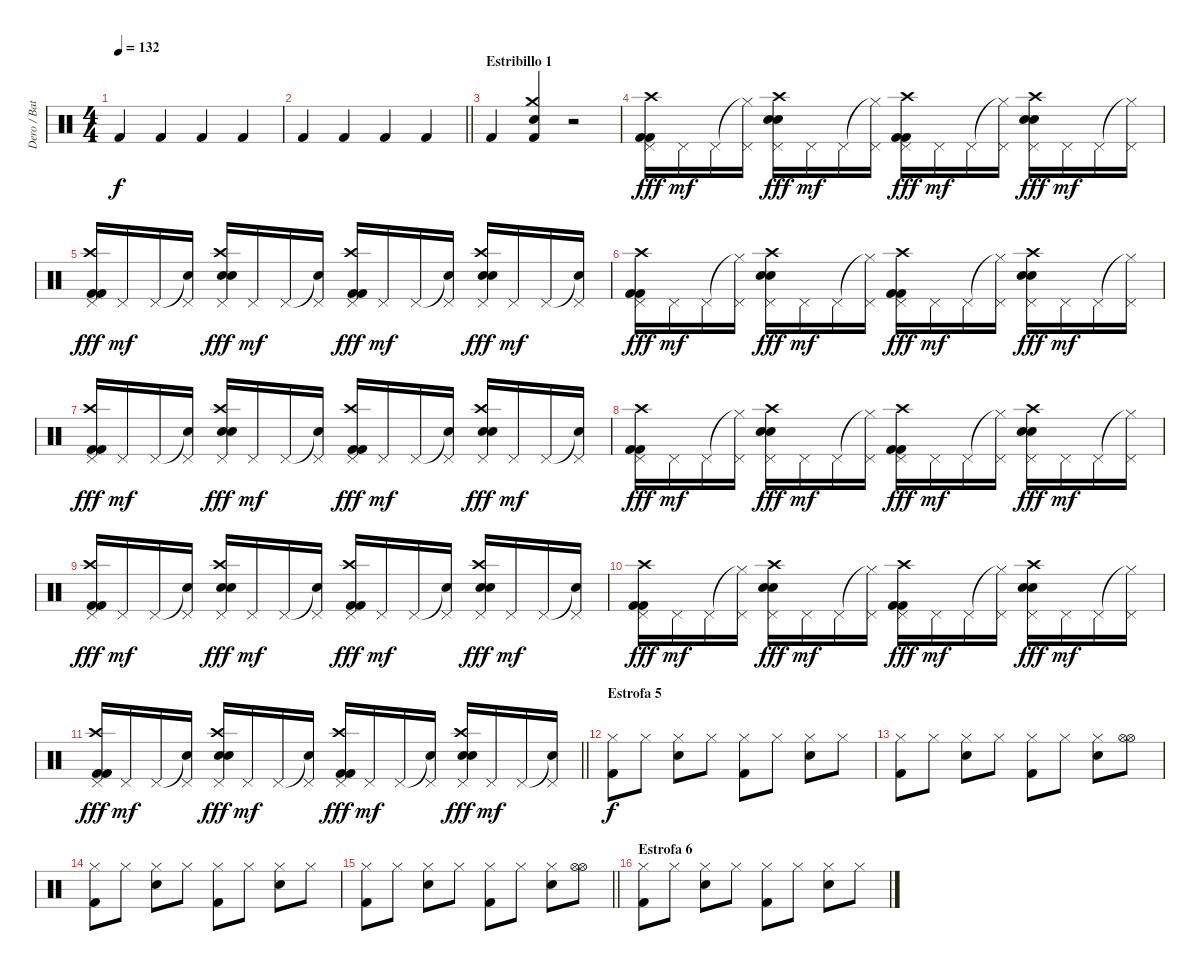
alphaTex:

\track ("Dero / Bateria" "Dero / Bat") {instrument percussion}
\staff {score}
\articulation defaults
\ts (4 4)
\tempo 132
\clef neutral
\ks c "Kick (hit) 2".4{dy f} "Kick (hit) 2".4 "Kick (hit) 2".4 "Kick (hit) 2".4
|
\barLineRight lightlight "Kick (hit) 2".4 "Kick (hit) 2".4 "Kick (hit) 2".4 "Kick (hit) 2".4
|
\section ("" "Estribillo 1")
"Kick (hit) 2".4 ("Crash medium (hit)" "Electric Snare (hit)" "Kick (hit) 2").4 r.2 |
("Crash high (hit)" "Pedal Hi-Hat (hit)" "Kick (hit) 2" "Kick (hit) 2").16{dy fff} "Pedal Hi-Hat (hit)".16{dy mf} "Pedal Hi-Hat (hit)".16 ("Hi-Hat (closed)"{t} "Pedal Hi-Hat (hit)").16 ("Crash high (hit)" "Pedal Hi-Hat (hit)" "Electric Snare (hit)" "Electric Snare (hit)").16{dy fff} "Pedal Hi-Hat (hit)".16{dy mf} "Pedal Hi-Hat (hit)".16 ("Hi-Hat (closed)"{t} "Pedal Hi-Hat (hit)").16 ("Crash high (hit)" "Pedal Hi-Hat (hit)" "Kick (hit) 2" "Kick (hit) 2").16{dy fff} "Pedal Hi-Hat (hit)".16{dy mf} "Pedal Hi-Hat (hit)".16 ("Hi-Hat (closed)"{t} "Pedal Hi-Hat (hit)").16 ("Crash high (hit)" "Pedal Hi-Hat (hit)" "Electric Snare (hit)" "Electric Snare (hit)").16{dy fff} "Pedal Hi-Hat (hit)".16{dy mf} "Pedal Hi-Hat (hit)".16 ("Hi-Hat (closed)"{t} "Pedal Hi-Hat (hit)").16 |
("Crash high (hit)" "Pedal Hi-Hat (hit)" "Kick (hit) 2" "Kick (hit) 2").16{dy fff} "Pedal Hi-Hat (hit)".16{dy mf} "Pedal Hi-Hat (hit)".16 ("Snare (hit)"{t} "Pedal Hi-Hat (hit)").16 ("Crash high (hit)" "Pedal Hi-Hat (hit)" "Electric Snare (hit)" "Electric Snare (hit)").16{dy fff} "Pedal Hi-Hat (hit)".16{dy mf} "Pedal Hi-Hat (hit)".16 ("Snare (hit)"{t} "Pedal Hi-Hat (hit)").16 ("Crash high (hit)" "Pedal Hi-Hat (hit)" "Kick (hit) 2" "Kick (hit) 2").16{dy fff} "Pedal Hi-Hat (hit)".16{dy mf} "Pedal Hi-Hat (hit)".16 ("Snare (hit)"{t} "Pedal Hi-Hat (hit)").16 ("Crash high (hit)" "Pedal Hi-Hat (hit)" "Electric Snare (hit)" "Electric Snare (hit)").16{dy fff} "Pedal Hi-Hat (hit)".16{dy mf} "Pedal Hi-Hat (hit)".16 ("Snare (hit)"{t} "Pedal Hi-Hat (hit)").16 |
("Crash high (hit)" "Pedal Hi-Hat (hit)" "Kick (hit) 2" "Kick (hit) 2").16{dy fff} "Pedal Hi-Hat (hit)".16{dy mf} "Pedal Hi-Hat (hit)".16 ("Hi-Hat (closed)"{t} "Pedal Hi-Hat (hit)").16 ("Crash high (hit)" "Pedal Hi-Hat (hit)" "Electric Snare (hit)" "Electric Snare (hit)").16{dy fff} "Pedal Hi-Hat (hit)".16{dy mf} "Pedal Hi-Hat (hit)".16 ("Hi-Hat (closed)"{t} "Pedal Hi-Hat (hit)").16 ("Crash high (hit)" "Pedal Hi-Hat (hit)" "Kick (hit) 2" "Kick (hit) 2").16{dy fff} "Pedal Hi-Hat (hit)".16{dy mf} "Pedal Hi-Hat (hit)".16 ("Hi-Hat (closed)"{t} "Pedal Hi-Hat (hit)").16 ("Crash high (hit)" "Pedal Hi-Hat (hit)" "Electric Snare (hit)" "Electric Snare (hit)").16{dy fff} "Pedal Hi-Hat (hit)".16{dy mf} "Pedal Hi-Hat (hit)".16 ("Hi-Hat (closed)"{t} "Pedal Hi-Hat (hit)").16 |
("Crash high (hit)" "Pedal Hi-Hat (hit)" "Kick (hit) 2" "Kick (hit) 2").16{dy fff} "Pedal Hi-Hat (hit)".16{dy mf} "Pedal Hi-Hat (hit)".16 ("Snare (hit)"{t} "Pedal Hi-Hat (hit)").16 ("Crash high (hit)" "Pedal Hi-Hat (hit)" "Electric Snare (hit)" "Electric Snare (hit)").16{dy fff} "Pedal Hi-Hat (hit)".16{dy mf} "Pedal Hi-Hat (hit)".16 ("Snare (hit)"{t} "Pedal Hi-Hat (hit)").16 ("Crash high (hit)" "Pedal Hi-Hat (hit)" "Kick (hit) 2" "Kick (hit) 2").16{dy fff} "Pedal Hi-Hat (hit)".16{dy mf} "Pedal Hi-Hat (hit)".16 ("Snare (hit)"{t} "Pedal Hi-Hat (hit)").16 ("Crash high (hit)" "Pedal Hi-Hat (hit)" "Electric Snare (hit)" "Electric Snare (hit)").16{dy fff} "Pedal Hi-Hat (hit)".16{dy mf} "Pedal Hi-Hat (hit)".16 ("Snare (hit)"{t} "Pedal Hi-Hat (hit)").16 |
("Crash high (hit)" "Pedal Hi-Hat (hit)" "Kick (hit) 2" "Kick (hit) 2").16{dy fff} "Pedal Hi-Hat (hit)".16{dy mf} "Pedal Hi-Hat (hit)".16 ("Hi-Hat (closed)"{t} "Pedal Hi-Hat (hit)").16 ("Crash high (hit)" "Pedal Hi-Hat (hit)" "Electric Snare (hit)" "Electric Snare (hit)").16{dy fff} "Pedal Hi-Hat (hit)".16{dy mf} "Pedal Hi-Hat (hit)".16 ("Hi-Hat (closed)"{t} "Pedal Hi-Hat (hit)").16 ("Crash high (hit)" "Pedal Hi-Hat (hit)" "Kick (hit) 2" "Kick (hit) 2").16{dy fff} "Pedal Hi-Hat (hit)".16{dy mf} "Pedal Hi-Hat (hit)".16 ("Hi-Hat (closed)"{t} "Pedal Hi-Hat (hit)").16 ("Crash high (hit)" "Pedal Hi-Hat (hit)" "Electric Snare (hit)" "Electric Snare (hit)").16{dy fff} "Pedal Hi-Hat (hit)".16{dy mf} "Pedal Hi-Hat (hit)".16 ("Hi-Hat (closed)"{t} "Pedal Hi-Hat (hit)").16 |
("Crash high (hit)" "Pedal Hi-Hat (hit)" "Kick (hit) 2" "Kick (hit) 2").16{dy fff} "Pedal Hi-Hat (hit)".16{dy mf} "Pedal Hi-Hat (hit)".16 ("Snare (hit)"{t} "Pedal Hi-Hat (hit)").16 ("Crash high (hit)" "Pedal Hi-Hat (hit)" "Electric Snare (hit)" "Electric Snare (hit)").16{dy fff} "Pedal Hi-Hat (hit)".16{dy mf} "Pedal Hi-Hat (hit)".16 ("Snare (hit)"{t} "Pedal Hi-Hat (hit)").16 ("Crash high (hit)" "Pedal Hi-Hat (hit)" "Kick (hit) 2" "Kick (hit) 2").16{dy fff} "Pedal Hi-Hat (hit)".16{dy mf} "Pedal Hi-Hat (hit)".16 ("Snare (hit)"{t} "Pedal Hi-Hat (hit)").16 ("Crash high (hit)" "Pedal Hi-Hat (hit)" "Electric Snare (hit)" "Electric Snare (hit)").16{dy fff} "Pedal Hi-Hat (hit)".16{dy mf} "Pedal Hi-Hat (hit)".16 ("Snare (hit)"{t} "Pedal Hi-Hat (hit)").16 |
("Crash high (hit)" "Pedal Hi-Hat (hit)" "Kick (hit) 2" "Kick (hit) 2").16{dy fff} "Pedal Hi-Hat (hit)".16{dy mf} "Pedal Hi-Hat (hit)".16 ("Hi-Hat (closed)"{t} "Pedal Hi-Hat (hit)").16 ("Crash high (hit)" "Pedal Hi-Hat (hit)" "Electric Snare (hit)" "Electric Snare (hit)").16{dy fff} "Pedal Hi-Hat (hit)".16{dy mf} "Pedal Hi-Hat (hit)".16 ("Hi-Hat (closed)"{t} "Pedal Hi-Hat (hit)").16 ("Crash high (hit)" "Pedal Hi-Hat (hit)" "Kick (hit) 2" "Kick (hit) 2").16{dy fff} "Pedal Hi-Hat (hit)".16{dy mf} "Pedal Hi-Hat (hit)".16 ("Hi-Hat (closed)"{t} "Pedal Hi-Hat (hit)").16 ("Crash high (hit)" "Pedal Hi-Hat (hit)" "Electric Snare (hit)" "Electric Snare (hit)").16{dy fff} "Pedal Hi-Hat (hit)".16{dy mf} "Pedal Hi-Hat (hit)".16 ("Hi-Hat (closed)"{t} "Pedal Hi-Hat (hit)").16 |
\barLineRight lightlight
("Crash high (hit)" "Pedal Hi-Hat (hit)" "Kick (hit) 2" "Kick (hit) 2").16{dy fff} "Pedal Hi-Hat (hit)".16{dy mf} "Pedal Hi-Hat (hit)".16 ("Snare (hit)"{t} "Pedal Hi-Hat (hit)").16 ("Crash high (hit)" "Pedal Hi-Hat (hit)" "Electric Snare (hit)" "Electric Snare (hit)").16{dy fff} "Pedal Hi-Hat (hit)".16{dy mf} "Pedal Hi-Hat (hit)".16 ("Snare (hit)"{t} "Pedal Hi-Hat (hit)").16 ("Crash high (hit)" "Pedal Hi-Hat (hit)" "Kick (hit) 2" "Kick (hit) 2").16{dy fff} "Pedal Hi-Hat (hit)".16{dy mf} "Pedal Hi-Hat (hit)".16 ("Snare (hit)"{t} "Pedal Hi-Hat (hit)").16 ("Crash high (hit)" "Pedal Hi-Hat (hit)" "Electric Snare (hit)" "Electric Snare (hit)").16{dy fff} "Pedal Hi-Hat (hit)".16{dy mf} "Pedal Hi-Hat (hit)".16 ("Snare (hit)"{t} "Pedal Hi-Hat (hit)").16 |
\section ("" "Estrofa 5")
("Hi-Hat (closed)" "Kick (hit) 2").8{dy f} "Hi-Hat (closed)".8 ("Hi-Hat (closed)" "Electric Snare (hit)").8 "Hi-Hat (closed)".8 ("Hi-Hat (closed)" "Kick (hit) 2").8 "Hi-Hat (closed)".8 ("Hi-Hat (closed)" "Electric Snare (hit)").8 "Hi-Hat (closed)".8 |
("Hi-Hat (closed)" "Kick (hit) 2").8 "Hi-Hat (closed)".8 ("Hi-Hat (closed)" "Electric Snare (hit)").8 "Hi-Hat (closed)".8 ("Hi-Hat (closed)" "Kick (hit) 2").8 "Hi-Hat (closed)".8 ("Hi-Hat (closed)" "Electric Snare (hit)").8 ("Hi-Hat (open)" "Hi-Hat (open)").8 |
("Hi-Hat (closed)" "Kick (hit) 2").8 "Hi-Hat (closed)".8 ("Hi-Hat (closed)" "Electric Snare (hit)").8 "Hi-Hat (closed)".8 ("Hi-Hat (closed)" "Kick (hit) 2").8 "Hi-Hat (closed)".8 ("Hi-Hat (closed)" "Electric Snare (hit)").8 "Hi-Hat (closed)".8 |
\barLineRight lightlight
("Hi-Hat (closed)" "Kick (hit) 2").8 "Hi-Hat (closed)".8 ("Hi-Hat (closed)" "Electric Snare (hit)").8 "Hi-Hat (closed)".8 ("Hi-Hat (closed)" "Kick (hit) 2").8 "Hi-Hat (closed)".8 ("Hi-Hat (closed)" "Electric Snare (hit)").8 ("Hi-Hat (open)" "Hi-Hat (open)").8 |
\section ("" "Estrofa 6")
("Hi-Hat (closed)" "Kick (hit) 2").8 "Hi-Hat (closed)".8 ("Hi-Hat (closed)" "Electric Snare (hit)").8 "Hi-Hat (closed)".8 ("Hi-Hat (closed)" "Kick (hit) 2").8 "Hi-Hat (closed)".8 ("Hi-Hat (closed)" "Electric Snare (hit)").8 "Hi-Hat (closed)".8
